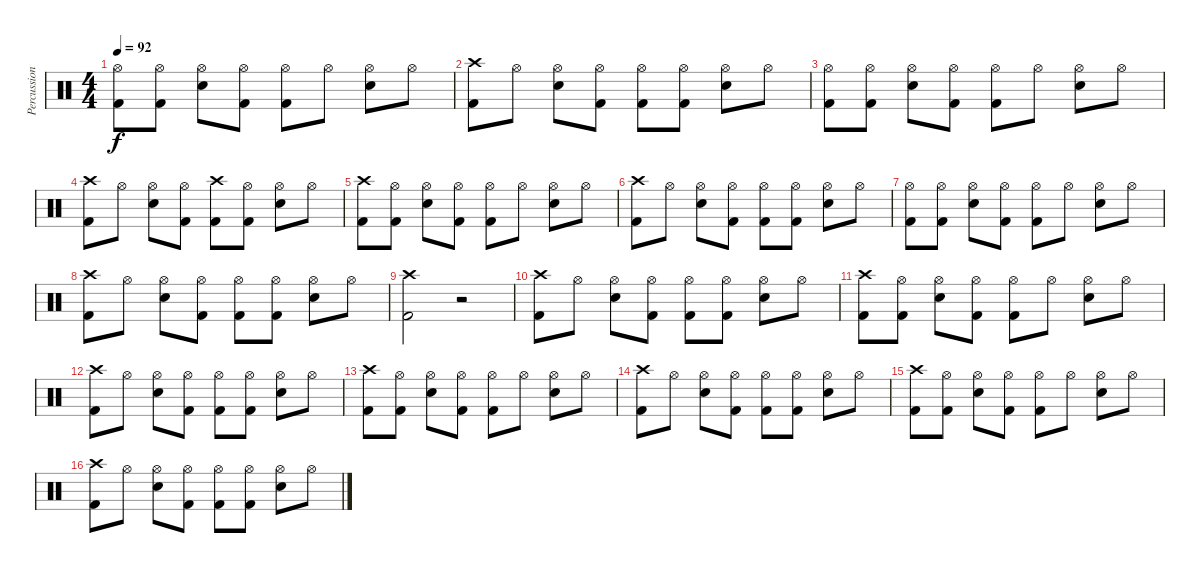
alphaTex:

\track ("Percussion" "Percussion") {instrument percussion}
\staff {score}
\articulation defaults
\ts (4 4)
\tempo 92
\clef neutral
\ks c
("Hi-Hat (open)" "Kick (hit) 2").8{dy f} ("Hi-Hat (open)" "Kick (hit) 2").8 ("Hi-Hat (open)" "Electric Snare (hit)").8 ("Hi-Hat (open)" "Kick (hit) 2").8 ("Hi-Hat (open)" "Kick (hit) 2").8 "Hi-Hat (open)".8 ("Hi-Hat (open)" "Electric Snare (hit)").8 "Hi-Hat (open)".8 |
("Crash high (hit)" "Kick (hit) 2").8 "Hi-Hat (open)".8 ("Hi-Hat (open)" "Electric Snare (hit)").8 ("Hi-Hat (open)" "Kick (hit) 2").8 ("Hi-Hat (open)" "Kick (hit) 2").8 ("Hi-Hat (open)" "Kick (hit) 2").8 ("Hi-Hat (open)" "Electric Snare (hit)").8 "Hi-Hat (open)".8 |
("Hi-Hat (open)" "Kick (hit) 2").8 ("Hi-Hat (open)" "Kick (hit) 2").8 ("Hi-Hat (open)" "Electric Snare (hit)").8 ("Hi-Hat (open)" "Kick (hit) 2").8 ("Hi-Hat (open)" "Kick (hit) 2").8 "Hi-Hat (open)".8 ("Hi-Hat (open)" "Electric Snare (hit)").8 "Hi-Hat (open)".8 |
("Crash high (hit)" "Kick (hit) 2").8 "Hi-Hat (open)".8 ("Hi-Hat (open)" "Electric Snare (hit)").8 ("Hi-Hat (open)" "Kick (hit) 2").8 ("Crash high (hit)" "Kick (hit) 2").8 ("Hi-Hat (open)" "Kick (hit) 2").8 ("Hi-Hat (open)" "Electric Snare (hit)").8 "Hi-Hat (open)".8 |
("Crash high (hit)" "Kick (hit) 2").8 ("Hi-Hat (open)" "Kick (hit) 2").8 ("Hi-Hat (open)" "Electric Snare (hit)").8 ("Hi-Hat (open)" "Kick (hit) 2").8 ("Hi-Hat (open)" "Kick (hit) 2").8 "Hi-Hat (open)".8 ("Hi-Hat (open)" "Electric Snare (hit)").8 "Hi-Hat (open)".8 |
("Crash high (hit)" "Kick (hit) 2").8 "Hi-Hat (open)".8 ("Hi-Hat (open)" "Electric Snare (hit)").8 ("Hi-Hat (open)" "Kick (hit) 2").8 ("Hi-Hat (open)" "Kick (hit) 2").8 ("Hi-Hat (open)" "Kick (hit) 2").8 ("Hi-Hat (open)" "Electric Snare (hit)").8 "Hi-Hat (open)".8 |
("Hi-Hat (open)" "Kick (hit) 2").8 ("Hi-Hat (open)" "Kick (hit) 2").8 ("Hi-Hat (open)" "Electric Snare (hit)").8 ("Hi-Hat (open)" "Kick (hit) 2").8 ("Hi-Hat (open)" "Kick (hit) 2").8 "Hi-Hat (open)".8 ("Hi-Hat (open)" "Electric Snare (hit)").8 "Hi-Hat (open)".8 |
("Crash high (hit)" "Kick (hit) 2").8 "Hi-Hat (open)".8 ("Hi-Hat (open)" "Electric Snare (hit)").8 ("Hi-Hat (open)" "Kick (hit) 2").8 ("Hi-Hat (open)" "Kick (hit) 2").8 ("Hi-Hat (open)" "Kick (hit) 2").8 ("Hi-Hat (open)" "Electric Snare (hit)").8 "Hi-Hat (open)".8 |
("Crash high (hit)" "Kick (hit) 2").2 r.2 |
("Crash high (hit)" "Kick (hit) 2").8 "Hi-Hat (open)".8 ("Hi-Hat (open)" "Electric Snare (hit)").8 ("Hi-Hat (open)" "Kick (hit) 2").8 ("Hi-Hat (open)" "Kick (hit) 2").8 ("Hi-Hat (open)" "Kick (hit) 2").8 ("Hi-Hat (open)" "Electric Snare (hit)").8 "Hi-Hat (open)".8 |
("Crash high (hit)" "Kick (hit) 2").8 ("Hi-Hat (open)" "Kick (hit) 2").8 ("Hi-Hat (open)" "Electric Snare (hit)").8 ("Hi-Hat (open)" "Kick (hit) 2").8 ("Hi-Hat (open)" "Kick (hit) 2").8 "Hi-Hat (open)".8 ("Hi-Hat (open)" "Electric Snare (hit)").8 "Hi-Hat (open)".8 |
("Crash high (hit)" "Kick (hit) 2").8 "Hi-Hat (open)".8 ("Hi-Hat (open)" "Electric Snare (hit)").8 ("Hi-Hat (open)" "Kick (hit) 2").8 ("Hi-Hat (open)" "Kick (hit) 2").8 ("Hi-Hat (open)" "Kick (hit) 2").8 ("Hi-Hat (open)" "Electric Snare (hit)").8 "Hi-Hat (open)".8 |
("Crash high (hit)" "Kick (hit) 2").8 ("Hi-Hat (open)" "Kick (hit) 2").8 ("Hi-Hat (open)" "Electric Snare (hit)").8 ("Hi-Hat (open)" "Kick (hit) 2").8 ("Hi-Hat (open)" "Kick (hit) 2").8 "Hi-Hat (open)".8 ("Hi-Hat (open)" "Electric Snare (hit)").8 "Hi-Hat (open)".8 |
("Crash high (hit)" "Kick (hit) 2").8 "Hi-Hat (open)".8 ("Hi-Hat (open)" "Electric Snare (hit)").8 ("Hi-Hat (open)" "Kick (hit) 2").8 ("Hi-Hat (open)" "Kick (hit) 2").8 ("Hi-Hat (open)" "Kick (hit) 2").8 ("Hi-Hat (open)" "Electric Snare (hit)").8 "Hi-Hat (open)".8 |
("Crash high (hit)" "Kick (hit) 2").8 ("Hi-Hat (open)" "Kick (hit) 2").8 ("Hi-Hat (open)" "Electric Snare (hit)").8 ("Hi-Hat (open)" "Kick (hit) 2").8 ("Hi-Hat (open)" "Kick (hit) 2").8 "Hi-Hat (open)".8 ("Hi-Hat (open)" "Electric Snare (hit)").8 "Hi-Hat (open)".8 |
("Crash high (hit)" "Kick (hit) 2").8 "Hi-Hat (open)".8 ("Hi-Hat (open)" "Electric Snare (hit)").8 ("Hi-Hat (open)" "Kick (hit) 2").8 ("Hi-Hat (open)" "Kick (hit) 2").8 ("Hi-Hat (open)" "Kick (hit) 2").8 ("Hi-Hat (open)" "Electric Snare (hit)").8 "Hi-Hat (open)".8
